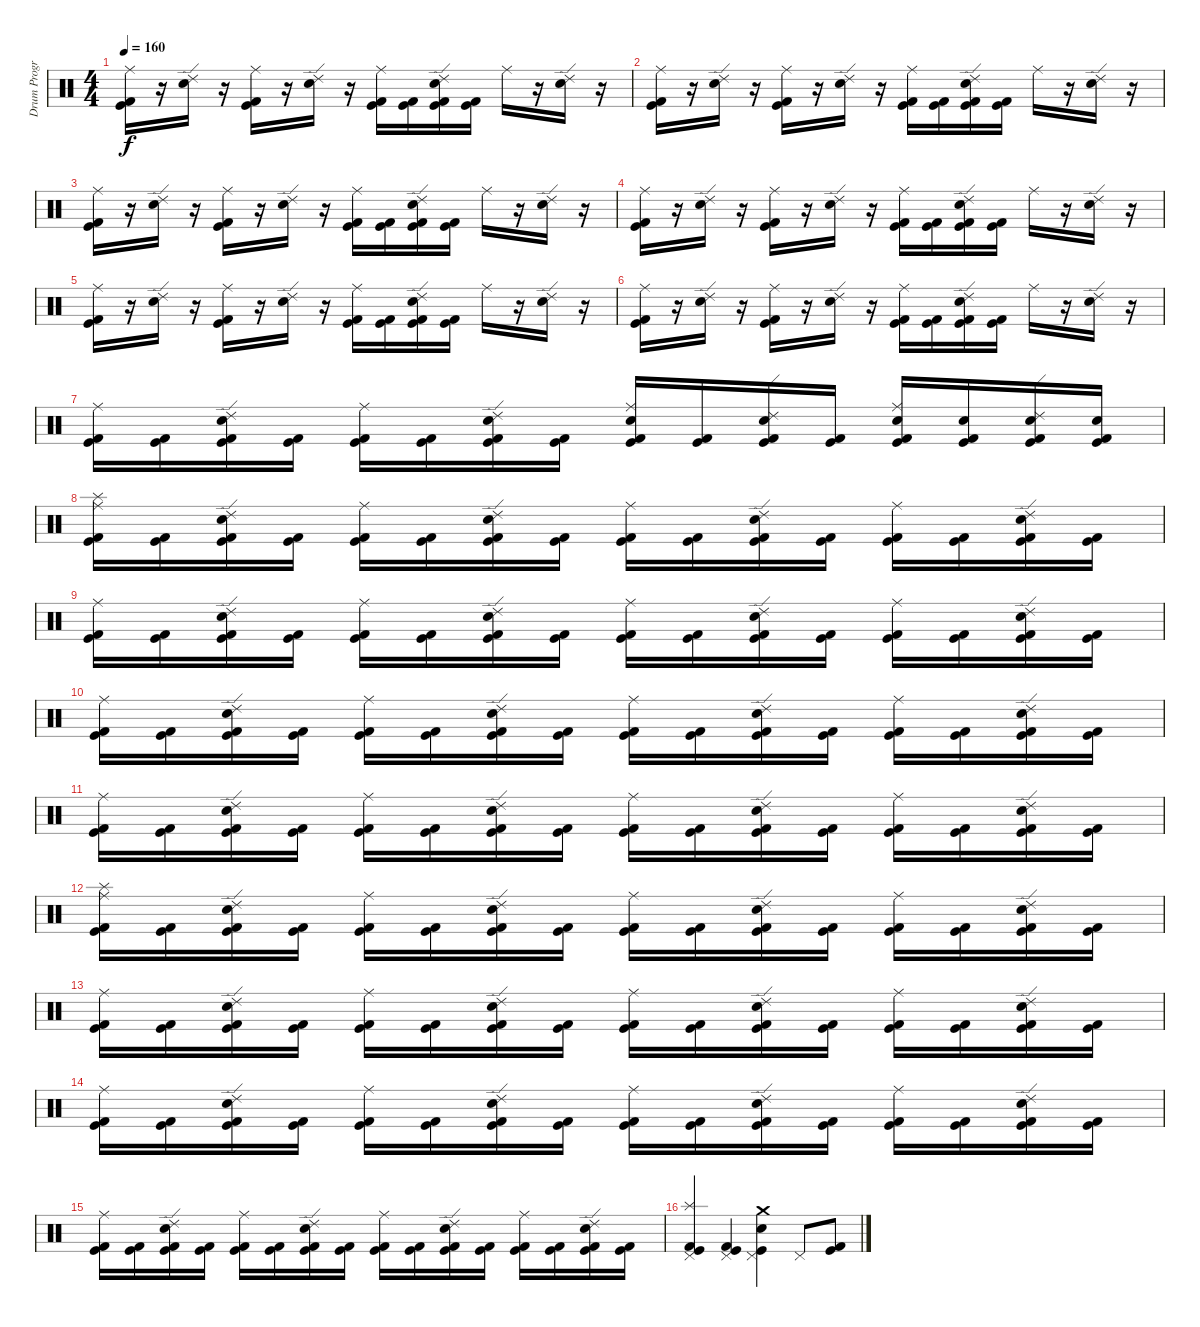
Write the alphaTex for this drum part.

\track ("Drum Program - BG" "Drum Progr") {instrument percussion}
\staff {score}
\articulation defaults
\ts (4 4)
\tempo 160
\clef neutral
\ks c
("Kick (hit) 2" "Kick (hit)" "Ride (middle)").16{dy f} r.16 ("Electric Snare (hit)" "Ride (edge) 2").16 r.16 ("Kick (hit)" "Kick (hit) 2" "Ride (middle)").16 r.16 ("Electric Snare (hit)" "Ride (edge) 2").16 r.16 ("Kick (hit)" "Kick (hit) 2" "Ride (middle)").16 ("Kick (hit)" "Kick (hit) 2").16 ("Kick (hit)" "Kick (hit) 2" "Electric Snare (hit)" "Ride (edge) 2").16 ("Kick (hit)" "Kick (hit) 2").16 "Ride (middle)".16 r.16 ("Electric Snare (hit)" "Ride (edge) 2").16 r.16 |
("Kick (hit) 2" "Kick (hit)" "Ride (middle)").16 r.16 ("Electric Snare (hit)" "Ride (edge) 2").16 r.16 ("Kick (hit)" "Kick (hit) 2" "Ride (middle)").16 r.16 ("Electric Snare (hit)" "Ride (edge) 2").16 r.16 ("Kick (hit)" "Kick (hit) 2" "Ride (middle)").16 ("Kick (hit)" "Kick (hit) 2").16 ("Kick (hit)" "Kick (hit) 2" "Electric Snare (hit)" "Ride (edge) 2").16 ("Kick (hit)" "Kick (hit) 2").16 "Ride (middle)".16 r.16 ("Electric Snare (hit)" "Ride (edge) 2").16 r.16 |
("Kick (hit) 2" "Kick (hit)" "Ride (middle)").16 r.16 ("Electric Snare (hit)" "Ride (edge) 2").16 r.16 ("Kick (hit)" "Kick (hit) 2" "Ride (middle)").16 r.16 ("Electric Snare (hit)" "Ride (edge) 2").16 r.16 ("Kick (hit)" "Kick (hit) 2" "Ride (middle)").16 ("Kick (hit)" "Kick (hit) 2").16 ("Kick (hit)" "Kick (hit) 2" "Electric Snare (hit)" "Ride (edge) 2").16 ("Kick (hit)" "Kick (hit) 2").16 "Ride (middle)".16 r.16 ("Electric Snare (hit)" "Ride (edge) 2").16 r.16 |
("Kick (hit) 2" "Kick (hit)" "Ride (middle)").16 r.16 ("Electric Snare (hit)" "Ride (edge) 2").16 r.16 ("Kick (hit)" "Kick (hit) 2" "Ride (middle)").16 r.16 ("Electric Snare (hit)" "Ride (edge) 2").16 r.16 ("Kick (hit)" "Kick (hit) 2" "Ride (middle)").16 ("Kick (hit)" "Kick (hit) 2").16 ("Kick (hit)" "Kick (hit) 2" "Electric Snare (hit)" "Ride (edge) 2").16 ("Kick (hit)" "Kick (hit) 2").16 "Ride (middle)".16 r.16 ("Electric Snare (hit)" "Ride (edge) 2").16 r.16 |
("Kick (hit) 2" "Kick (hit)" "Ride (middle)").16 r.16 ("Electric Snare (hit)" "Ride (edge) 2").16 r.16 ("Kick (hit)" "Kick (hit) 2" "Ride (middle)").16 r.16 ("Electric Snare (hit)" "Ride (edge) 2").16 r.16 ("Kick (hit)" "Kick (hit) 2" "Ride (middle)").16 ("Kick (hit)" "Kick (hit) 2").16 ("Kick (hit)" "Kick (hit) 2" "Electric Snare (hit)" "Ride (edge) 2").16 ("Kick (hit)" "Kick (hit) 2").16 "Ride (middle)".16 r.16 ("Electric Snare (hit)" "Ride (edge) 2").16 r.16 |
("Kick (hit) 2" "Kick (hit)" "Ride (middle)").16 r.16 ("Electric Snare (hit)" "Ride (edge) 2").16 r.16 ("Kick (hit)" "Kick (hit) 2" "Ride (middle)").16 r.16 ("Electric Snare (hit)" "Ride (edge) 2").16 r.16 ("Kick (hit)" "Kick (hit) 2" "Ride (middle)").16 ("Kick (hit)" "Kick (hit) 2").16 ("Kick (hit)" "Kick (hit) 2" "Electric Snare (hit)" "Ride (edge) 2").16 ("Kick (hit)" "Kick (hit) 2").16 "Ride (middle)".16 r.16 ("Electric Snare (hit)" "Ride (edge) 2").16 r.16 |
("Kick (hit)" "Kick (hit) 2" "Ride (middle)").16 ("Kick (hit)" "Kick (hit) 2").16 ("Kick (hit)" "Kick (hit) 2" "Electric Snare (hit)" "Ride (edge) 2").16 ("Kick (hit)" "Kick (hit) 2").16 ("Kick (hit)" "Kick (hit) 2" "Ride (middle)").16 ("Kick (hit)" "Kick (hit) 2").16 ("Kick (hit)" "Kick (hit) 2" "Electric Snare (hit)" "Ride (edge) 2").16 ("Kick (hit)" "Kick (hit) 2").16 ("Kick (hit)" "Kick (hit) 2" "Electric Snare (hit)" "Ride (middle)").16 ("Kick (hit)" "Kick (hit) 2").16 ("Kick (hit)" "Kick (hit) 2" "Electric Snare (hit)" "Ride (edge) 2").16 ("Kick (hit)" "Kick (hit) 2").16 ("Kick (hit)" "Kick (hit) 2" "Electric Snare (hit)" "Ride (middle)").16 ("Kick (hit)" "Kick (hit) 2" "Electric Snare (hit)").16 ("Kick (hit)" "Kick (hit) 2" "Electric Snare (hit)" "Ride (edge) 2").16 ("Kick (hit)" "Kick (hit) 2" "Electric Snare (hit)").16 |
("Kick (hit)" "Kick (hit) 2" "Splash (hit)" "Ride (middle)").16 ("Kick (hit)" "Kick (hit) 2").16 ("Kick (hit)" "Kick (hit) 2" "Electric Snare (hit)" "Ride (edge) 2").16 ("Kick (hit)" "Kick (hit) 2").16 ("Kick (hit)" "Kick (hit) 2" "Ride (middle)").16 ("Kick (hit)" "Kick (hit) 2").16 ("Kick (hit)" "Kick (hit) 2" "Electric Snare (hit)" "Ride (edge) 2").16 ("Kick (hit)" "Kick (hit) 2").16 ("Kick (hit)" "Kick (hit) 2" "Ride (middle)").16 ("Kick (hit)" "Kick (hit) 2").16 ("Kick (hit)" "Kick (hit) 2" "Electric Snare (hit)" "Ride (edge) 2").16 ("Kick (hit)" "Kick (hit) 2").16 ("Kick (hit)" "Kick (hit) 2" "Ride (middle)").16 ("Kick (hit)" "Kick (hit) 2").16 ("Kick (hit)" "Kick (hit) 2" "Electric Snare (hit)" "Ride (edge) 2").16 ("Kick (hit)" "Kick (hit) 2").16 |
("Kick (hit)" "Kick (hit) 2" "Ride (middle)").16 ("Kick (hit)" "Kick (hit) 2").16 ("Kick (hit)" "Kick (hit) 2" "Electric Snare (hit)" "Ride (edge) 2").16 ("Kick (hit)" "Kick (hit) 2").16 ("Kick (hit)" "Kick (hit) 2" "Ride (middle)").16 ("Kick (hit)" "Kick (hit) 2").16 ("Kick (hit)" "Kick (hit) 2" "Electric Snare (hit)" "Ride (edge) 2").16 ("Kick (hit)" "Kick (hit) 2").16 ("Kick (hit)" "Kick (hit) 2" "Ride (middle)").16 ("Kick (hit)" "Kick (hit) 2").16 ("Kick (hit)" "Kick (hit) 2" "Electric Snare (hit)" "Ride (edge) 2").16 ("Kick (hit)" "Kick (hit) 2").16 ("Kick (hit)" "Kick (hit) 2" "Ride (middle)").16 ("Kick (hit)" "Kick (hit) 2").16 ("Kick (hit)" "Kick (hit) 2" "Electric Snare (hit)" "Ride (edge) 2").16 ("Kick (hit)" "Kick (hit) 2").16 |
("Kick (hit)" "Kick (hit) 2" "Ride (middle)").16 ("Kick (hit)" "Kick (hit) 2").16 ("Kick (hit)" "Kick (hit) 2" "Electric Snare (hit)" "Ride (edge) 2").16 ("Kick (hit)" "Kick (hit) 2").16 ("Kick (hit)" "Kick (hit) 2" "Ride (middle)").16 ("Kick (hit)" "Kick (hit) 2").16 ("Kick (hit)" "Kick (hit) 2" "Electric Snare (hit)" "Ride (edge) 2").16 ("Kick (hit)" "Kick (hit) 2").16 ("Kick (hit)" "Kick (hit) 2" "Ride (middle)").16 ("Kick (hit)" "Kick (hit) 2").16 ("Kick (hit)" "Kick (hit) 2" "Electric Snare (hit)" "Ride (edge) 2").16 ("Kick (hit)" "Kick (hit) 2").16 ("Kick (hit)" "Kick (hit) 2" "Ride (middle)").16 ("Kick (hit)" "Kick (hit) 2").16 ("Kick (hit)" "Kick (hit) 2" "Electric Snare (hit)" "Ride (edge) 2").16 ("Kick (hit)" "Kick (hit) 2").16 |
("Kick (hit)" "Kick (hit) 2" "Ride (middle)").16 ("Kick (hit)" "Kick (hit) 2").16 ("Kick (hit)" "Kick (hit) 2" "Electric Snare (hit)" "Ride (edge) 2").16 ("Kick (hit)" "Kick (hit) 2").16 ("Kick (hit)" "Kick (hit) 2" "Ride (middle)").16 ("Kick (hit)" "Kick (hit) 2").16 ("Kick (hit)" "Kick (hit) 2" "Electric Snare (hit)" "Ride (edge) 2").16 ("Kick (hit)" "Kick (hit) 2").16 ("Kick (hit)" "Kick (hit) 2" "Ride (middle)").16 ("Kick (hit)" "Kick (hit) 2").16 ("Kick (hit)" "Kick (hit) 2" "Electric Snare (hit)" "Ride (edge) 2").16 ("Kick (hit)" "Kick (hit) 2").16 ("Kick (hit)" "Kick (hit) 2" "Ride (middle)").16 ("Kick (hit)" "Kick (hit) 2").16 ("Kick (hit)" "Kick (hit) 2" "Electric Snare (hit)" "Ride (edge) 2").16 ("Kick (hit)" "Kick (hit) 2").16 |
("Kick (hit)" "Kick (hit) 2" "Splash (hit)" "Ride (middle)").16 ("Kick (hit)" "Kick (hit) 2").16 ("Kick (hit)" "Kick (hit) 2" "Electric Snare (hit)" "Ride (edge) 2").16 ("Kick (hit)" "Kick (hit) 2").16 ("Kick (hit)" "Kick (hit) 2" "Ride (middle)").16 ("Kick (hit)" "Kick (hit) 2").16 ("Kick (hit)" "Kick (hit) 2" "Electric Snare (hit)" "Ride (edge) 2").16 ("Kick (hit)" "Kick (hit) 2").16 ("Kick (hit)" "Kick (hit) 2" "Ride (middle)").16 ("Kick (hit)" "Kick (hit) 2").16 ("Kick (hit)" "Kick (hit) 2" "Electric Snare (hit)" "Ride (edge) 2").16 ("Kick (hit)" "Kick (hit) 2").16 ("Kick (hit)" "Kick (hit) 2" "Ride (middle)").16 ("Kick (hit)" "Kick (hit) 2").16 ("Kick (hit)" "Kick (hit) 2" "Electric Snare (hit)" "Ride (edge) 2").16 ("Kick (hit)" "Kick (hit) 2").16 |
("Kick (hit)" "Kick (hit) 2" "Ride (middle)").16 ("Kick (hit)" "Kick (hit) 2").16 ("Kick (hit)" "Kick (hit) 2" "Electric Snare (hit)" "Ride (edge) 2").16 ("Kick (hit)" "Kick (hit) 2").16 ("Kick (hit)" "Kick (hit) 2" "Ride (middle)").16 ("Kick (hit)" "Kick (hit) 2").16 ("Kick (hit)" "Kick (hit) 2" "Electric Snare (hit)" "Ride (edge) 2").16 ("Kick (hit)" "Kick (hit) 2").16 ("Kick (hit)" "Kick (hit) 2" "Ride (middle)").16 ("Kick (hit)" "Kick (hit) 2").16 ("Kick (hit)" "Kick (hit) 2" "Electric Snare (hit)" "Ride (edge) 2").16 ("Kick (hit)" "Kick (hit) 2").16 ("Kick (hit)" "Kick (hit) 2" "Ride (middle)").16 ("Kick (hit)" "Kick (hit) 2").16 ("Kick (hit)" "Kick (hit) 2" "Electric Snare (hit)" "Ride (edge) 2").16 ("Kick (hit)" "Kick (hit) 2").16 |
("Kick (hit)" "Kick (hit) 2" "Ride (middle)").16 ("Kick (hit)" "Kick (hit) 2").16 ("Kick (hit)" "Kick (hit) 2" "Electric Snare (hit)" "Ride (edge) 2").16 ("Kick (hit)" "Kick (hit) 2").16 ("Kick (hit)" "Kick (hit) 2" "Ride (middle)").16 ("Kick (hit)" "Kick (hit) 2").16 ("Kick (hit)" "Kick (hit) 2" "Electric Snare (hit)" "Ride (edge) 2").16 ("Kick (hit)" "Kick (hit) 2").16 ("Kick (hit)" "Kick (hit) 2" "Ride (middle)").16 ("Kick (hit)" "Kick (hit) 2").16 ("Kick (hit)" "Kick (hit) 2" "Electric Snare (hit)" "Ride (edge) 2").16 ("Kick (hit)" "Kick (hit) 2").16 ("Kick (hit)" "Kick (hit) 2" "Ride (middle)").16 ("Kick (hit)" "Kick (hit) 2").16 ("Kick (hit)" "Kick (hit) 2" "Electric Snare (hit)" "Ride (edge) 2").16 ("Kick (hit)" "Kick (hit) 2").16 |
("Kick (hit)" "Kick (hit) 2" "Ride (middle)").16 ("Kick (hit)" "Kick (hit) 2").16 ("Kick (hit)" "Kick (hit) 2" "Electric Snare (hit)" "Ride (edge) 2").16 ("Kick (hit)" "Kick (hit) 2").16 ("Kick (hit)" "Kick (hit) 2" "Ride (middle)").16 ("Kick (hit)" "Kick (hit) 2").16 ("Kick (hit)" "Kick (hit) 2" "Electric Snare (hit)" "Ride (edge) 2").16 ("Kick (hit)" "Kick (hit) 2").16 ("Kick (hit)" "Kick (hit) 2" "Ride (middle)").16 ("Kick (hit)" "Kick (hit) 2").16 ("Kick (hit)" "Kick (hit) 2" "Electric Snare (hit)" "Ride (edge) 2").16 ("Kick (hit)" "Kick (hit) 2").16 ("Kick (hit)" "Kick (hit) 2" "Ride (middle)").16 ("Kick (hit)" "Kick (hit) 2").16 ("Kick (hit)" "Kick (hit) 2" "Electric Snare (hit)" "Ride (edge) 2").16 ("Kick (hit)" "Kick (hit) 2").16 |
("Kick (hit) 2" "Kick (hit)" "Splash (hit)" "Pedal Hi-Hat (hit)").4 ("Kick (hit) 2" "Kick (hit)" "Pedal Hi-Hat (hit)").4 ("Crash medium (hit)" "Kick (hit)" "Electric Snare (hit)" "Pedal Hi-Hat (hit)").4 "Pedal Hi-Hat (hit)".8 ("Kick (hit)" "Kick (hit) 2").8
